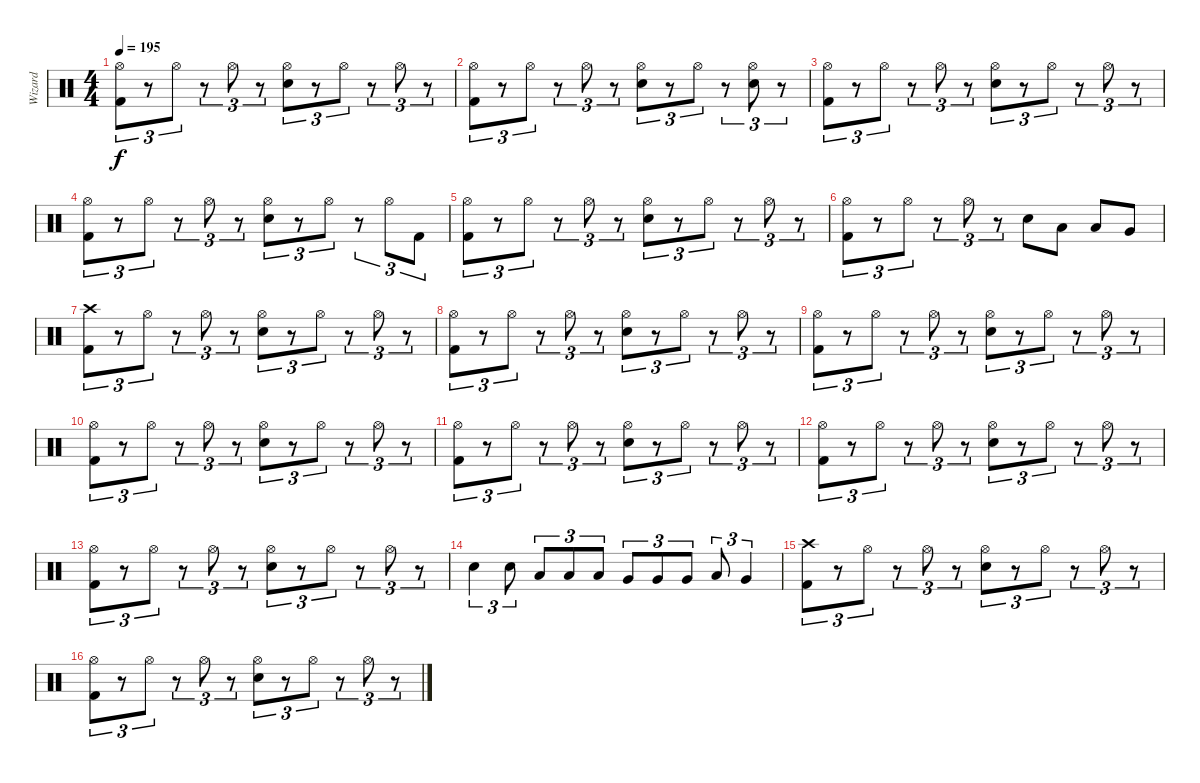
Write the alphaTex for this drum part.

\track ("Wizard" "Wizard") {instrument percussion}
\staff {score}
\articulation defaults
\ts (4 4)
\tempo 195
\clef neutral
\ks c
("Hi-Hat (open)" "Kick (hit) 2").8{tu (3 2) dy f} r.8{tu (3 2)} "Hi-Hat (open)".8{tu (3 2)} r.8{tu (3 2)} "Hi-Hat (open)".8{tu (3 2)} r.8{tu (3 2)} ("Hi-Hat (open)" "Snare (hit) 2").8{tu (3 2)} r.8{tu (3 2)} "Hi-Hat (open)".8{tu (3 2)} r.8{tu (3 2)} "Hi-Hat (open)".8{tu (3 2)} r.8{tu (3 2)} |
("Hi-Hat (open)" "Kick (hit) 2").8{tu (3 2)} r.8{tu (3 2)} "Hi-Hat (open)".8{tu (3 2)} r.8{tu (3 2)} "Hi-Hat (open)".8{tu (3 2)} r.8{tu (3 2)} ("Hi-Hat (open)" "Snare (hit) 2").8{tu (3 2)} r.8{tu (3 2)} "Hi-Hat (open)".8{tu (3 2)} r.8{tu (3 2)} ("Hi-Hat (open)" "Snare (hit) 2").8{tu (3 2)} r.8{tu (3 2)} |
("Hi-Hat (open)" "Kick (hit) 2").8{tu (3 2)} r.8{tu (3 2)} "Hi-Hat (open)".8{tu (3 2)} r.8{tu (3 2)} "Hi-Hat (open)".8{tu (3 2)} r.8{tu (3 2)} ("Hi-Hat (open)" "Snare (hit) 2").8{tu (3 2)} r.8{tu (3 2)} "Hi-Hat (open)".8{tu (3 2)} r.8{tu (3 2)} "Hi-Hat (open)".8{tu (3 2)} r.8{tu (3 2)} |
("Hi-Hat (open)" "Kick (hit) 2").8{tu (3 2)} r.8{tu (3 2)} "Hi-Hat (open)".8{tu (3 2)} r.8{tu (3 2)} "Hi-Hat (open)".8{tu (3 2)} r.8{tu (3 2)} ("Hi-Hat (open)" "Snare (hit) 2").8{tu (3 2)} r.8{tu (3 2)} "Hi-Hat (open)".8{tu (3 2)} r.8{tu (3 2)} "Hi-Hat (open)".8{tu (3 2)} "Kick (hit) 2".8{tu (3 2)} |
("Hi-Hat (open)" "Kick (hit) 2").8{tu (3 2)} r.8{tu (3 2)} "Hi-Hat (open)".8{tu (3 2)} r.8{tu (3 2)} "Hi-Hat (open)".8{tu (3 2)} r.8{tu (3 2)} ("Hi-Hat (open)" "Snare (hit) 2").8{tu (3 2)} r.8{tu (3 2)} "Hi-Hat (open)".8{tu (3 2)} r.8{tu (3 2)} "Hi-Hat (open)".8{tu (3 2)} r.8{tu (3 2)} |
("Hi-Hat (open)" "Kick (hit) 2").8{tu (3 2)} r.8{tu (3 2)} "Hi-Hat (open)".8{tu (3 2)} r.8{tu (3 2)} "Hi-Hat (open)".8{tu (3 2)} r.8{tu (3 2)} "Snare (hit) 2".8 "Low Tom (hit)".8 "Low Tom (hit)".8 "Very Low Tom (hit)".8 |
("Crash high (hit)" "Kick (hit) 2").8{tu (3 2)} r.8{tu (3 2)} "Hi-Hat (open)".8{tu (3 2)} r.8{tu (3 2)} "Hi-Hat (open)".8{tu (3 2)} r.8{tu (3 2)} ("Hi-Hat (open)" "Snare (hit) 2").8{tu (3 2)} r.8{tu (3 2)} "Hi-Hat (open)".8{tu (3 2)} r.8{tu (3 2)} "Hi-Hat (open)".8{tu (3 2)} r.8{tu (3 2)} |
("Hi-Hat (open)" "Kick (hit) 2").8{tu (3 2)} r.8{tu (3 2)} "Hi-Hat (open)".8{tu (3 2)} r.8{tu (3 2)} "Hi-Hat (open)".8{tu (3 2)} r.8{tu (3 2)} ("Hi-Hat (open)" "Snare (hit) 2").8{tu (3 2)} r.8{tu (3 2)} "Hi-Hat (open)".8{tu (3 2)} r.8{tu (3 2)} "Hi-Hat (open)".8{tu (3 2)} r.8{tu (3 2)} |
("Hi-Hat (open)" "Kick (hit) 2").8{tu (3 2)} r.8{tu (3 2)} "Hi-Hat (open)".8{tu (3 2)} r.8{tu (3 2)} "Hi-Hat (open)".8{tu (3 2)} r.8{tu (3 2)} ("Hi-Hat (open)" "Snare (hit) 2").8{tu (3 2)} r.8{tu (3 2)} "Hi-Hat (open)".8{tu (3 2)} r.8{tu (3 2)} "Hi-Hat (open)".8{tu (3 2)} r.8{tu (3 2)} |
("Hi-Hat (open)" "Kick (hit) 2").8{tu (3 2)} r.8{tu (3 2)} "Hi-Hat (open)".8{tu (3 2)} r.8{tu (3 2)} "Hi-Hat (open)".8{tu (3 2)} r.8{tu (3 2)} ("Hi-Hat (open)" "Snare (hit) 2").8{tu (3 2)} r.8{tu (3 2)} "Hi-Hat (open)".8{tu (3 2)} r.8{tu (3 2)} "Hi-Hat (open)".8{tu (3 2)} r.8{tu (3 2)} |
("Hi-Hat (open)" "Kick (hit) 2").8{tu (3 2)} r.8{tu (3 2)} "Hi-Hat (open)".8{tu (3 2)} r.8{tu (3 2)} "Hi-Hat (open)".8{tu (3 2)} r.8{tu (3 2)} ("Hi-Hat (open)" "Snare (hit) 2").8{tu (3 2)} r.8{tu (3 2)} "Hi-Hat (open)".8{tu (3 2)} r.8{tu (3 2)} "Hi-Hat (open)".8{tu (3 2)} r.8{tu (3 2)} |
("Hi-Hat (open)" "Kick (hit) 2").8{tu (3 2)} r.8{tu (3 2)} "Hi-Hat (open)".8{tu (3 2)} r.8{tu (3 2)} "Hi-Hat (open)".8{tu (3 2)} r.8{tu (3 2)} ("Hi-Hat (open)" "Snare (hit) 2").8{tu (3 2)} r.8{tu (3 2)} "Hi-Hat (open)".8{tu (3 2)} r.8{tu (3 2)} "Hi-Hat (open)".8{tu (3 2)} r.8{tu (3 2)} |
("Hi-Hat (open)" "Kick (hit) 2").8{tu (3 2)} r.8{tu (3 2)} "Hi-Hat (open)".8{tu (3 2)} r.8{tu (3 2)} "Hi-Hat (open)".8{tu (3 2)} r.8{tu (3 2)} ("Hi-Hat (open)" "Snare (hit) 2").8{tu (3 2)} r.8{tu (3 2)} "Hi-Hat (open)".8{tu (3 2)} r.8{tu (3 2)} "Hi-Hat (open)".8{tu (3 2)} r.8{tu (3 2)} |
"Snare (hit) 2".4{tu (3 2)} "Snare (hit) 2".8{tu (3 2)} "Low Tom (hit)".8{tu (3 2)} "Low Tom (hit)".8{tu (3 2)} "Low Tom (hit)".8{tu (3 2)} "Very Low Tom (hit)".8{tu (3 2)} "Very Low Tom (hit)".8{tu (3 2)} "Very Low Tom (hit)".8{tu (3 2)} "Low Tom (hit)".8{tu (3 2)} "Very Low Tom (hit)".4{tu (3 2)} |
("Crash high (hit)" "Kick (hit) 2").8{tu (3 2)} r.8{tu (3 2)} "Hi-Hat (open)".8{tu (3 2)} r.8{tu (3 2)} "Hi-Hat (open)".8{tu (3 2)} r.8{tu (3 2)} ("Hi-Hat (open)" "Snare (hit) 2").8{tu (3 2)} r.8{tu (3 2)} "Hi-Hat (open)".8{tu (3 2)} r.8{tu (3 2)} "Hi-Hat (open)".8{tu (3 2)} r.8{tu (3 2)} |
("Hi-Hat (open)" "Kick (hit) 2").8{tu (3 2)} r.8{tu (3 2)} "Hi-Hat (open)".8{tu (3 2)} r.8{tu (3 2)} "Hi-Hat (open)".8{tu (3 2)} r.8{tu (3 2)} ("Hi-Hat (open)" "Snare (hit) 2").8{tu (3 2)} r.8{tu (3 2)} "Hi-Hat (open)".8{tu (3 2)} r.8{tu (3 2)} "Hi-Hat (open)".8{tu (3 2)} r.8{tu (3 2)}
